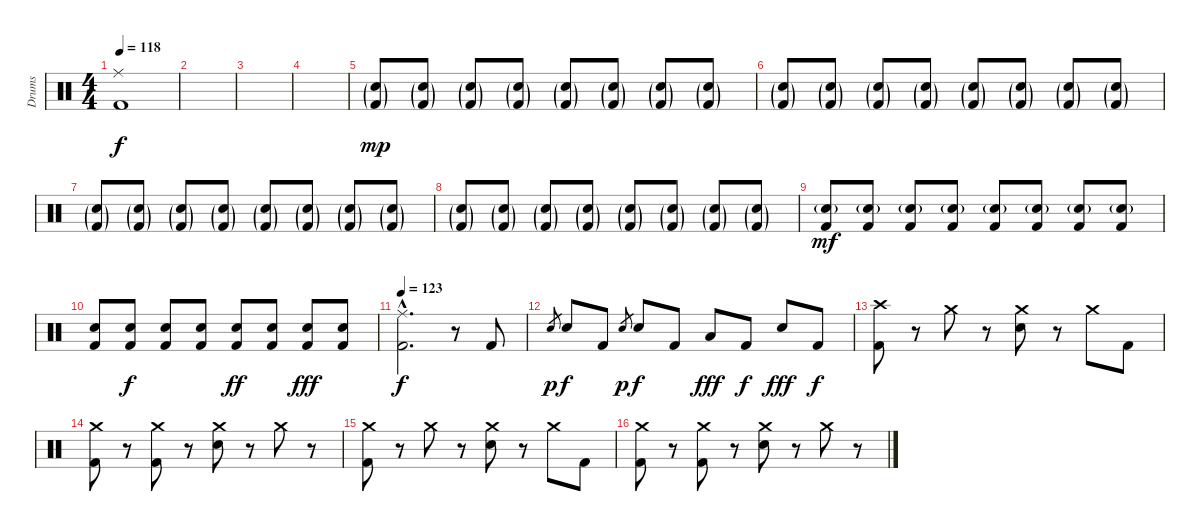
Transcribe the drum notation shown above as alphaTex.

\track ("Drums" "Drums") {instrument percussion}
\staff {score}
\articulation defaults
\ts (4 4)
\tempo 118
\clef neutral
\ks c
("Ride (middle)" "Kick (hit) 2").1{dy f} |
|
|
|
("Electric Snare (hit)"{g} "Kick (hit) 2"{g}).8{dy mp} ("Electric Snare (hit)"{g} "Kick (hit) 2"{g}).8 ("Electric Snare (hit)"{g} "Kick (hit) 2"{g}).8 ("Electric Snare (hit)"{g} "Kick (hit) 2"{g}).8 ("Electric Snare (hit)"{g} "Kick (hit) 2"{g}).8 ("Electric Snare (hit)"{g} "Kick (hit) 2"{g}).8 ("Electric Snare (hit)"{g} "Kick (hit) 2"{g}).8 ("Electric Snare (hit)"{g} "Kick (hit) 2"{g}).8 |
("Electric Snare (hit)"{g} "Kick (hit) 2"{g}).8 ("Electric Snare (hit)"{g} "Kick (hit) 2"{g}).8 ("Electric Snare (hit)"{g} "Kick (hit) 2"{g}).8 ("Electric Snare (hit)"{g} "Kick (hit) 2"{g}).8 ("Electric Snare (hit)"{g} "Kick (hit) 2"{g}).8 ("Electric Snare (hit)"{g} "Kick (hit) 2"{g}).8 ("Electric Snare (hit)"{g} "Kick (hit) 2"{g}).8 ("Electric Snare (hit)"{g} "Kick (hit) 2"{g}).8 |
("Electric Snare (hit)"{g} "Kick (hit) 2"{g}).8 ("Electric Snare (hit)"{g} "Kick (hit) 2"{g}).8 ("Electric Snare (hit)"{g} "Kick (hit) 2"{g}).8 ("Electric Snare (hit)"{g} "Kick (hit) 2"{g}).8 ("Electric Snare (hit)"{g} "Kick (hit) 2"{g}).8 ("Electric Snare (hit)"{g} "Kick (hit) 2"{g}).8 ("Electric Snare (hit)"{g} "Kick (hit) 2"{g}).8 ("Electric Snare (hit)"{g} "Kick (hit) 2"{g}).8 |
("Electric Snare (hit)"{g} "Kick (hit) 2"{g}).8 ("Electric Snare (hit)"{g} "Kick (hit) 2"{g}).8 ("Electric Snare (hit)"{g} "Kick (hit) 2"{g}).8 ("Electric Snare (hit)"{g} "Kick (hit) 2"{g}).8 ("Electric Snare (hit)"{g} "Kick (hit) 2"{g}).8 ("Electric Snare (hit)"{g} "Kick (hit) 2"{g}).8 ("Electric Snare (hit)"{g} "Kick (hit) 2"{g}).8 ("Electric Snare (hit)"{g} "Kick (hit) 2"{g}).8 |
("Electric Snare (hit)"{g} "Kick (hit) 2").8{dy mf} ("Electric Snare (hit)"{g} "Kick (hit) 2").8 ("Electric Snare (hit)"{g} "Kick (hit) 2").8 ("Electric Snare (hit)"{g} "Kick (hit) 2").8 ("Electric Snare (hit)"{g} "Kick (hit) 2").8 ("Electric Snare (hit)"{g} "Kick (hit) 2").8 ("Electric Snare (hit)"{g} "Kick (hit) 2").8 ("Electric Snare (hit)"{g} "Kick (hit) 2").8 |
("Electric Snare (hit)" "Kick (hit) 2").8 ("Electric Snare (hit)" "Kick (hit) 2").8{dy f} ("Electric Snare (hit)" "Kick (hit) 2").8 ("Electric Snare (hit)" "Kick (hit) 2").8 ("Electric Snare (hit)" "Kick (hit) 2").8{dy ff} ("Electric Snare (hit)" "Kick (hit) 2").8 ("Electric Snare (hit)" "Kick (hit) 2").8{dy fff} ("Electric Snare (hit)" "Kick (hit) 2").8 |
\tempo 123
("Ride (middle)"{hac} "Kick (hit) 2"{hac}).2{d dy f} r.8 "Kick (hit) 2".8 |
"Electric Snare (hit)".8{gr dy p} "Electric Snare (hit)".8{dy f} "Kick (hit) 2".8 "Electric Snare (hit)".8{gr dy p} "Electric Snare (hit)".8{dy f} "Kick (hit) 2".8 "Low Tom (hit)".8{dy fff} "Kick (hit) 2".8{dy f} "Electric Snare (hit)".8{dy fff} "Kick (hit) 2".8{dy f} |
("Crash high (hit)" "Kick (hit) 2").8 r.8 "Crash medium (hit)".8 r.8 ("Crash medium (hit)" "Electric Snare (hit)").8 r.8 "Crash medium (hit)".8 "Kick (hit) 2".8 |
("Crash medium (hit)" "Kick (hit) 2").8 r.8 ("Crash medium (hit)" "Kick (hit) 2").8 r.8 ("Crash medium (hit)" "Electric Snare (hit)").8 r.8 "Crash medium (hit)".8 r.8 |
("Crash medium (hit)" "Kick (hit) 2").8 r.8 "Crash medium (hit)".8 r.8 ("Crash medium (hit)" "Electric Snare (hit)").8 r.8 "Crash medium (hit)".8 "Kick (hit) 2".8 |
("Crash medium (hit)" "Kick (hit) 2").8 r.8 ("Crash medium (hit)" "Kick (hit) 2").8 r.8 ("Crash medium (hit)" "Electric Snare (hit)").8 r.8 "Crash medium (hit)".8 r.8
